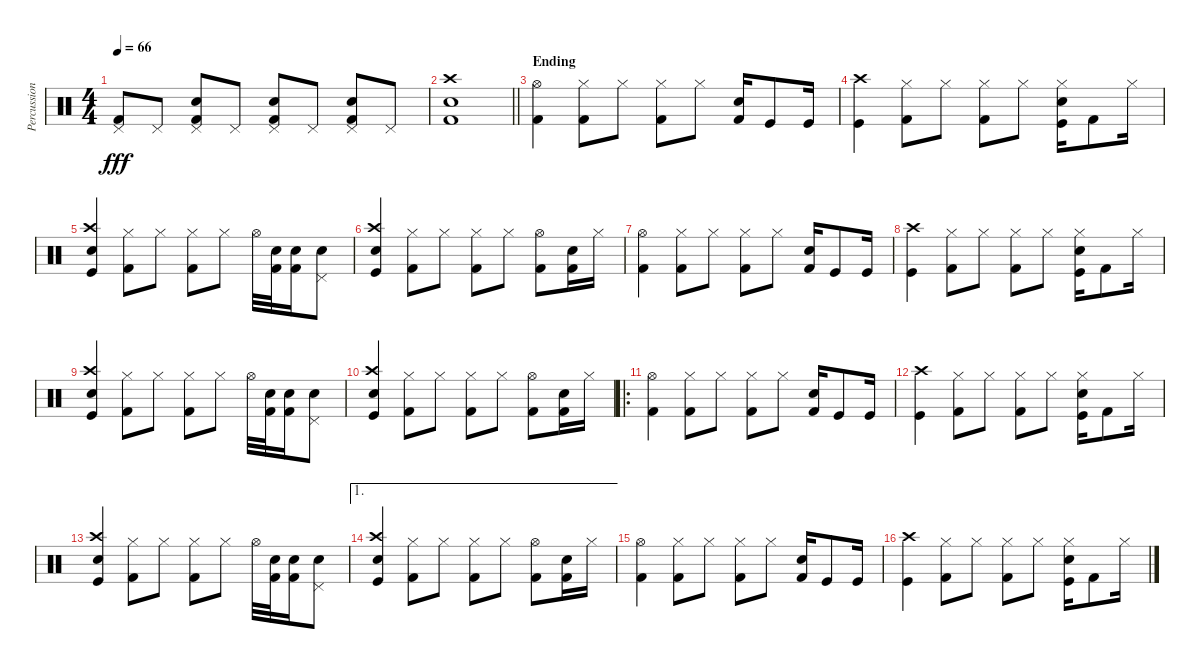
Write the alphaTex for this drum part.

\track ("Percussion" "Percussion") {instrument percussion}
\staff {score}
\articulation defaults
\ts (4 4)
\tempo 66
\clef neutral
\ks c
("Pedal Hi-Hat (hit)" "Kick (hit) 2").8{dy fff} "Pedal Hi-Hat (hit)".8 ("Pedal Hi-Hat (hit)" "Snare (hit) 2" "Kick (hit) 2").8 "Pedal Hi-Hat (hit)".8 ("Pedal Hi-Hat (hit)" "Snare (hit) 2" "Kick (hit) 2").8 "Pedal Hi-Hat (hit)".8 ("Pedal Hi-Hat (hit)" "Snare (hit) 2" "Kick (hit) 2").8 "Pedal Hi-Hat (hit)".8 |
\barLineRight lightlight
("Crash high (hit)" "Snare (hit) 2" "Kick (hit) 2").1 |
\section ("" "Ending")
("Hi-Hat (open)" "Kick (hit) 2").4 ("Hi-Hat (closed)" "Kick (hit) 2").8 "Hi-Hat (closed)".8 ("Hi-Hat (closed)" "Kick (hit) 2").8 "Hi-Hat (closed)".8 ("Snare (hit) 2" "Kick (hit) 2").16 "Kick (hit)".8 "Kick (hit)".16 |
("Crash high (hit)" "Kick (hit)").4 ("Hi-Hat (closed)" "Kick (hit) 2").8 "Hi-Hat (closed)".8 ("Hi-Hat (closed)" "Kick (hit) 2").8 "Hi-Hat (closed)".8 ("Hi-Hat (closed)" "Snare (hit) 2" "Kick (hit)").16 "Kick (hit) 2".8 "Hi-Hat (closed)".16 |
("Crash high (hit)" "Snare (hit) 2" "Kick (hit)").4 ("Hi-Hat (closed)" "Kick (hit) 2").8 "Hi-Hat (closed)".8 ("Hi-Hat (closed)" "Kick (hit) 2").8 "Hi-Hat (closed)".8 "Hi-Hat (open)".32 ("Snare (hit) 2" "Kick (hit) 2").32 ("Snare (hit) 2" "Kick (hit) 2").16 ("Pedal Hi-Hat (hit)" "Snare (hit) 2").8 |
("Crash high (hit)" "Snare (hit) 2" "Kick (hit)").4 ("Hi-Hat (closed)" "Kick (hit) 2").8 "Hi-Hat (closed)".8 ("Hi-Hat (closed)" "Kick (hit) 2").8 "Hi-Hat (closed)".8 ("Hi-Hat (open)" "Kick (hit) 2").8 ("Snare (hit) 2" "Kick (hit) 2").16 "Hi-Hat (closed)".16 |
("Hi-Hat (open)" "Kick (hit) 2").4 ("Hi-Hat (closed)" "Kick (hit) 2").8 "Hi-Hat (closed)".8 ("Hi-Hat (closed)" "Kick (hit) 2").8 "Hi-Hat (closed)".8 ("Snare (hit) 2" "Kick (hit) 2").16 "Kick (hit)".8 "Kick (hit)".16 |
("Crash high (hit)" "Kick (hit)").4 ("Hi-Hat (closed)" "Kick (hit) 2").8 "Hi-Hat (closed)".8 ("Hi-Hat (closed)" "Kick (hit) 2").8 "Hi-Hat (closed)".8 ("Hi-Hat (closed)" "Snare (hit) 2" "Kick (hit)").16 "Kick (hit) 2".8 "Hi-Hat (closed)".16 |
("Crash high (hit)" "Snare (hit) 2" "Kick (hit)").4 ("Hi-Hat (closed)" "Kick (hit) 2").8 "Hi-Hat (closed)".8 ("Hi-Hat (closed)" "Kick (hit) 2").8 "Hi-Hat (closed)".8 "Hi-Hat (open)".32 ("Snare (hit) 2" "Kick (hit) 2").32 ("Snare (hit) 2" "Kick (hit) 2").16 ("Pedal Hi-Hat (hit)" "Snare (hit) 2").8 |
("Crash high (hit)" "Snare (hit) 2" "Kick (hit)").4 ("Hi-Hat (closed)" "Kick (hit) 2").8 "Hi-Hat (closed)".8 ("Hi-Hat (closed)" "Kick (hit) 2").8 "Hi-Hat (closed)".8 ("Hi-Hat (open)" "Kick (hit) 2").8 ("Snare (hit) 2" "Kick (hit) 2").16 "Hi-Hat (closed)".16 |
\ro
("Hi-Hat (open)" "Kick (hit) 2").4 ("Hi-Hat (closed)" "Kick (hit) 2").8 "Hi-Hat (closed)".8 ("Hi-Hat (closed)" "Kick (hit) 2").8 "Hi-Hat (closed)".8 ("Snare (hit) 2" "Kick (hit) 2").16 "Kick (hit)".8 "Kick (hit)".16 |
("Crash high (hit)" "Kick (hit)").4 ("Hi-Hat (closed)" "Kick (hit) 2").8 "Hi-Hat (closed)".8 ("Hi-Hat (closed)" "Kick (hit) 2").8 "Hi-Hat (closed)".8 ("Hi-Hat (closed)" "Snare (hit) 2" "Kick (hit)").16 "Kick (hit) 2".8 "Hi-Hat (closed)".16 |
("Crash high (hit)" "Snare (hit) 2" "Kick (hit)").4 ("Hi-Hat (closed)" "Kick (hit) 2").8 "Hi-Hat (closed)".8 ("Hi-Hat (closed)" "Kick (hit) 2").8 "Hi-Hat (closed)".8 "Hi-Hat (open)".32 ("Snare (hit) 2" "Kick (hit) 2").32 ("Snare (hit) 2" "Kick (hit) 2").16 ("Pedal Hi-Hat (hit)" "Snare (hit) 2").8 |
\ae 1
("Crash high (hit)" "Snare (hit) 2" "Kick (hit)").4 ("Hi-Hat (closed)" "Kick (hit) 2").8 "Hi-Hat (closed)".8 ("Hi-Hat (closed)" "Kick (hit) 2").8 "Hi-Hat (closed)".8 ("Hi-Hat (open)" "Kick (hit) 2").8 ("Snare (hit) 2" "Kick (hit) 2").16 "Hi-Hat (closed)".16 |
("Hi-Hat (open)" "Kick (hit) 2").4 ("Hi-Hat (closed)" "Kick (hit) 2").8 "Hi-Hat (closed)".8 ("Hi-Hat (closed)" "Kick (hit) 2").8 "Hi-Hat (closed)".8 ("Snare (hit) 2" "Kick (hit) 2").16 "Kick (hit)".8 "Kick (hit)".16 |
("Crash high (hit)" "Kick (hit)").4 ("Hi-Hat (closed)" "Kick (hit) 2").8 "Hi-Hat (closed)".8 ("Hi-Hat (closed)" "Kick (hit) 2").8 "Hi-Hat (closed)".8 ("Hi-Hat (closed)" "Snare (hit) 2" "Kick (hit)").16 "Kick (hit) 2".8 "Hi-Hat (closed)".16
